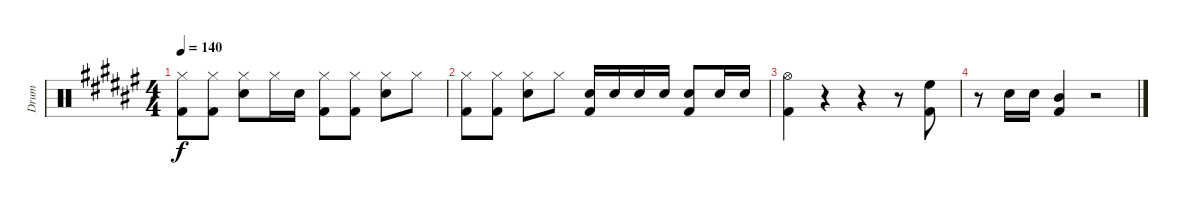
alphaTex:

\track ("Drum" "Drum") {instrument percussion}
\staff {score}
\articulation defaults
\ts (4 4)
\tempo 140
\clef neutral
\ks d#minor
("Hi-Hat (closed)" "Kick (hit) 2").8{dy f} ("Hi-Hat (closed)" "Kick (hit) 2").8 ("Hi-Hat (closed)" "Snare (hit) 2").8 "Hi-Hat (closed)".16 "Snare (hit) 2".16 ("Hi-Hat (closed)" "Kick (hit) 2").8 ("Hi-Hat (closed)" "Kick (hit) 2").8 ("Hi-Hat (closed)" "Snare (hit) 2").8 "Hi-Hat (closed)".8 |
("Hi-Hat (closed)" "Kick (hit) 2").8 ("Hi-Hat (closed)" "Kick (hit) 2").8 ("Hi-Hat (closed)" "Snare (hit) 2").8 "Hi-Hat (closed)".8 ("Snare (hit) 2" "Kick (hit) 2").16 "Snare (hit) 2".16 "Snare (hit) 2".16 "Snare (hit) 2".16 ("Snare (hit) 2" "Kick (hit) 2").8 "Snare (hit) 2".16 "Snare (hit) 2".16 |
("Hi-Hat (open)" "Kick (hit) 2").4 r.4 r.4 r.8 ("High Floor Tom (hit)" "Kick (hit) 2").8 |
r.8 "Snare (hit) 2".16 "Snare (hit) 2".16 ("Mid Tom (hit)" "Kick (hit) 2").4 r.2
